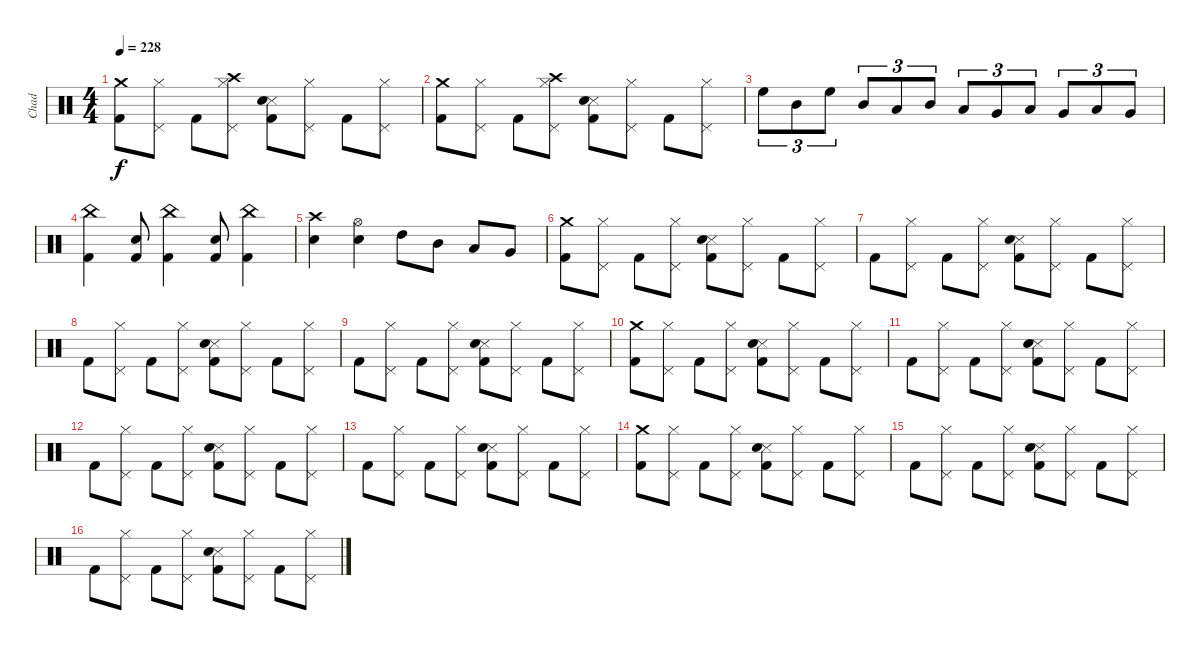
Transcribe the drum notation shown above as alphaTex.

\track ("Chad" "Chad") {instrument percussion}
\staff {score}
\articulation defaults
\ts (4 4)
\tempo 228
\clef neutral
\ks c
("Crash medium (hit)" "Kick (hit) 2").8{dy f} ("Hi-Hat (closed)" "Pedal Hi-Hat (hit)").8 "Kick (hit) 2".8 ("Crash high (hit)" "Hi-Hat (closed)" "Pedal Hi-Hat (hit)").8 ("Snare (side stick) 3" "Electric Snare (hit)" "Kick (hit) 2").8 ("Hi-Hat (closed)" "Pedal Hi-Hat (hit)").8 "Kick (hit) 2".8 ("Hi-Hat (closed)" "Pedal Hi-Hat (hit)").8 |
("Crash medium (hit)" "Kick (hit) 2").8 ("Hi-Hat (closed)" "Pedal Hi-Hat (hit)").8 "Kick (hit) 2".8 ("Crash high (hit)" "Hi-Hat (closed)" "Pedal Hi-Hat (hit)").8 ("Snare (side stick) 3" "Electric Snare (hit)" "Kick (hit) 2").8 ("Hi-Hat (closed)" "Pedal Hi-Hat (hit)").8 "Kick (hit) 2".8 ("Hi-Hat (closed)" "Pedal Hi-Hat (hit)").8 |
"High Floor Tom (hit)".8{tu (3 2)} "Mid Tom (hit)".8{tu (3 2)} "High Floor Tom (hit)".8{tu (3 2)} "Mid Tom (hit)".8{tu (3 2)} "Low Tom (hit)".8{tu (3 2)} "Mid Tom (hit)".8{tu (3 2)} "Low Tom (hit)".8{tu (3 2)} "Very Low Tom (hit)".8{tu (3 2)} "Low Tom (hit)".8{tu (3 2)} "Very Low Tom (hit)".8{tu (3 2)} "Low Floor Tom (hit)".8{tu (3 2)} "Very Low Tom (hit)".8{tu (3 2)} |
("China (hit)" "Kick (hit) 2").4 ("Electric Snare (hit)" "Kick (hit) 2").8 ("China (hit)" "Kick (hit) 2").4 ("Electric Snare (hit)" "Kick (hit) 2").8 ("China (hit)" "Kick (hit) 2").4 |
("Crash high (hit)" "Electric Snare (hit)").4 ("Hi-Hat (open)" "Electric Snare (hit)").4 "High Tom (hit)".8 "Mid Tom (hit)".8 "Low Tom (hit)".8 "Very Low Tom (hit)".8 |
("Crash medium (hit)" "Kick (hit) 2").8 ("Hi-Hat (closed)" "Pedal Hi-Hat (hit)").8 "Kick (hit) 2".8 ("Hi-Hat (closed)" "Pedal Hi-Hat (hit)").8 ("Snare (side stick) 3" "Electric Snare (hit)" "Kick (hit) 2").8 ("Hi-Hat (closed)" "Pedal Hi-Hat (hit)").8 "Kick (hit) 2".8 ("Hi-Hat (closed)" "Pedal Hi-Hat (hit)").8 |
"Kick (hit) 2".8 ("Hi-Hat (closed)" "Pedal Hi-Hat (hit)").8 "Kick (hit) 2".8 ("Hi-Hat (closed)" "Pedal Hi-Hat (hit)").8 ("Snare (side stick) 3" "Electric Snare (hit)" "Kick (hit) 2").8 ("Hi-Hat (closed)" "Pedal Hi-Hat (hit)").8 "Kick (hit) 2".8 ("Hi-Hat (closed)" "Pedal Hi-Hat (hit)").8 |
"Kick (hit) 2".8 ("Hi-Hat (closed)" "Pedal Hi-Hat (hit)").8 "Kick (hit) 2".8 ("Hi-Hat (closed)" "Pedal Hi-Hat (hit)").8 ("Snare (side stick) 3" "Electric Snare (hit)" "Kick (hit) 2").8 ("Hi-Hat (closed)" "Pedal Hi-Hat (hit)").8 "Kick (hit) 2".8 ("Hi-Hat (closed)" "Pedal Hi-Hat (hit)").8 |
"Kick (hit) 2".8 ("Hi-Hat (closed)" "Pedal Hi-Hat (hit)").8 "Kick (hit) 2".8 ("Hi-Hat (closed)" "Pedal Hi-Hat (hit)").8 ("Snare (side stick) 3" "Electric Snare (hit)" "Kick (hit) 2").8 ("Hi-Hat (closed)" "Pedal Hi-Hat (hit)").8 "Kick (hit) 2".8 ("Hi-Hat (closed)" "Pedal Hi-Hat (hit)").8 |
("Crash medium (hit)" "Kick (hit) 2").8 ("Hi-Hat (closed)" "Pedal Hi-Hat (hit)").8 "Kick (hit) 2".8 ("Hi-Hat (closed)" "Pedal Hi-Hat (hit)").8 ("Snare (side stick) 3" "Electric Snare (hit)" "Kick (hit) 2").8 ("Hi-Hat (closed)" "Pedal Hi-Hat (hit)").8 "Kick (hit) 2".8 ("Hi-Hat (closed)" "Pedal Hi-Hat (hit)").8 |
"Kick (hit) 2".8 ("Hi-Hat (closed)" "Pedal Hi-Hat (hit)").8 "Kick (hit) 2".8 ("Hi-Hat (closed)" "Pedal Hi-Hat (hit)").8 ("Snare (side stick) 3" "Electric Snare (hit)" "Kick (hit) 2").8 ("Hi-Hat (closed)" "Pedal Hi-Hat (hit)").8 "Kick (hit) 2".8 ("Hi-Hat (closed)" "Pedal Hi-Hat (hit)").8 |
"Kick (hit) 2".8 ("Hi-Hat (closed)" "Pedal Hi-Hat (hit)").8 "Kick (hit) 2".8 ("Hi-Hat (closed)" "Pedal Hi-Hat (hit)").8 ("Snare (side stick) 3" "Electric Snare (hit)" "Kick (hit) 2").8 ("Hi-Hat (closed)" "Pedal Hi-Hat (hit)").8 "Kick (hit) 2".8 ("Hi-Hat (closed)" "Pedal Hi-Hat (hit)").8 |
"Kick (hit) 2".8 ("Hi-Hat (closed)" "Pedal Hi-Hat (hit)").8 "Kick (hit) 2".8 ("Hi-Hat (closed)" "Pedal Hi-Hat (hit)").8 ("Snare (side stick) 3" "Electric Snare (hit)" "Kick (hit) 2").8 ("Hi-Hat (closed)" "Pedal Hi-Hat (hit)").8 "Kick (hit) 2".8 ("Hi-Hat (closed)" "Pedal Hi-Hat (hit)").8 |
("Crash medium (hit)" "Kick (hit) 2").8 ("Hi-Hat (closed)" "Pedal Hi-Hat (hit)").8 "Kick (hit) 2".8 ("Hi-Hat (closed)" "Pedal Hi-Hat (hit)").8 ("Snare (side stick) 3" "Electric Snare (hit)" "Kick (hit) 2").8 ("Hi-Hat (closed)" "Pedal Hi-Hat (hit)").8 "Kick (hit) 2".8 ("Hi-Hat (closed)" "Pedal Hi-Hat (hit)").8 |
"Kick (hit) 2".8 ("Hi-Hat (closed)" "Pedal Hi-Hat (hit)").8 "Kick (hit) 2".8 ("Hi-Hat (closed)" "Pedal Hi-Hat (hit)").8 ("Snare (side stick) 3" "Electric Snare (hit)" "Kick (hit) 2").8 ("Hi-Hat (closed)" "Pedal Hi-Hat (hit)").8 "Kick (hit) 2".8 ("Hi-Hat (closed)" "Pedal Hi-Hat (hit)").8 |
"Kick (hit) 2".8 ("Hi-Hat (closed)" "Pedal Hi-Hat (hit)").8 "Kick (hit) 2".8 ("Hi-Hat (closed)" "Pedal Hi-Hat (hit)").8 ("Snare (side stick) 3" "Electric Snare (hit)" "Kick (hit) 2").8 ("Hi-Hat (closed)" "Pedal Hi-Hat (hit)").8 "Kick (hit) 2".8 ("Hi-Hat (closed)" "Pedal Hi-Hat (hit)").8
